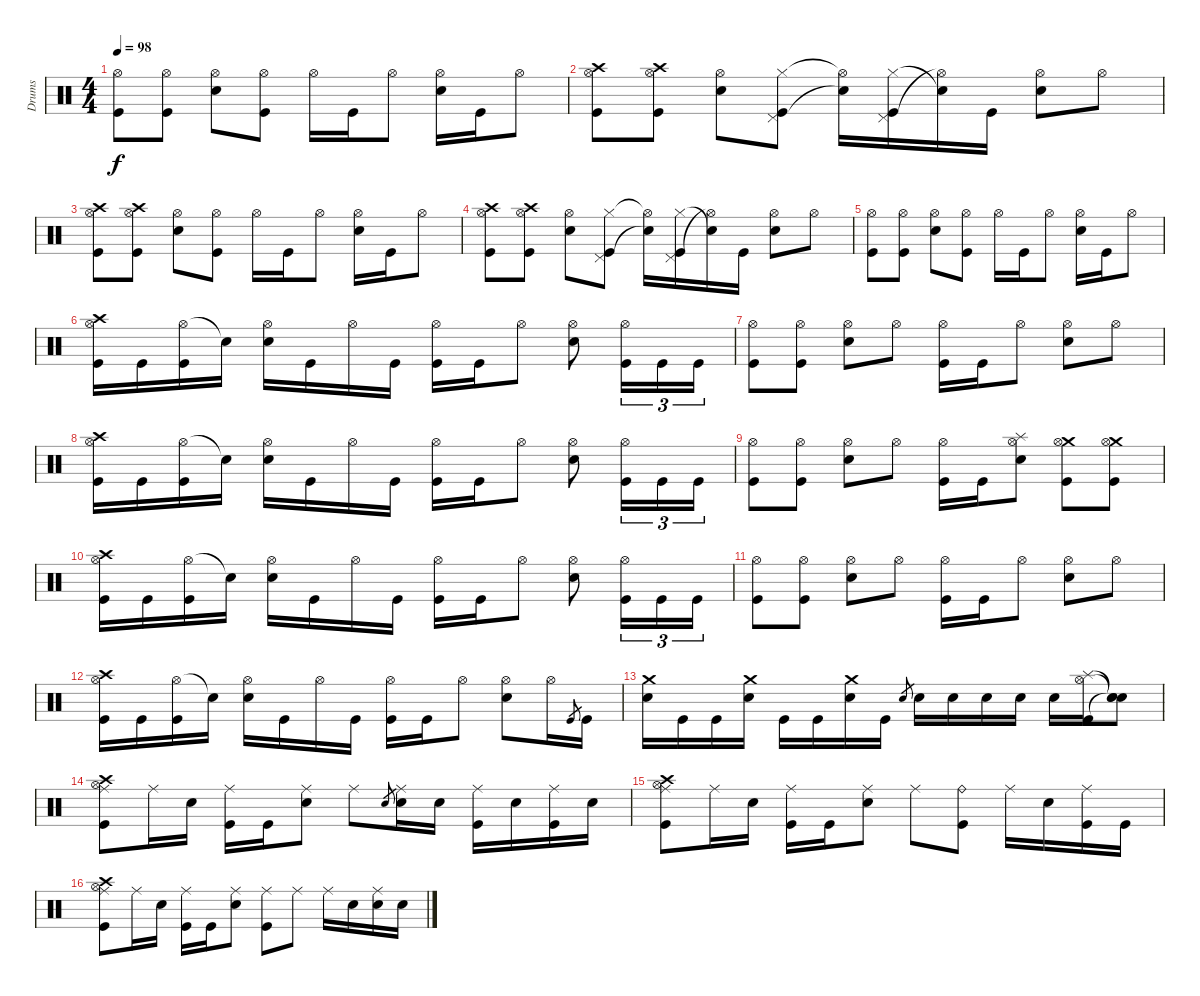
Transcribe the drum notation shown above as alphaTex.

\track ("Drums" "Drums") {instrument percussion}
\staff {score}
\articulation defaults
\ts (4 4)
\tempo 98
\clef neutral
\ks aminor
("Hi-Hat (open)" "Kick (hit)").8{dy f} ("Hi-Hat (open)" "Kick (hit)").8 ("Hi-Hat (open)" "Electric Snare (hit)").8 ("Hi-Hat (open)" "Kick (hit)").8 "Hi-Hat (open)".16 "Kick (hit)".16 "Hi-Hat (open)".8 ("Hi-Hat (open)" "Electric Snare (hit)").16 "Kick (hit)".16 "Hi-Hat (open)".8 |
("Crash high (hit)" "Hi-Hat (open)" "Kick (hit)").8 ("Crash high (hit)" "Hi-Hat (open)" "Kick (hit)").8 ("Hi-Hat (open)" "Electric Snare (hit)").8 ("Pedal Hi-Hat (hit)" "Hi-Hat (closed)" "Kick (hit)").8 ("Snare (hit)"{t} "Hi-Hat (open)"{t}).16 ("Hi-Hat (closed)" "Pedal Hi-Hat (hit)" "Kick (hit)").16 ("Snare (hit)"{t} "Hi-Hat (open)"{t}).16 "Kick (hit)".16 ("Hi-Hat (open)" "Electric Snare (hit)").8 "Hi-Hat (open)".8 |
("Crash high (hit)" "Hi-Hat (open)" "Kick (hit)").8 ("Crash high (hit)" "Hi-Hat (open)" "Kick (hit)").8 ("Hi-Hat (open)" "Electric Snare (hit)").8 ("Hi-Hat (open)" "Kick (hit)").8 "Hi-Hat (open)".16 "Kick (hit)".16 "Hi-Hat (open)".8 ("Hi-Hat (open)" "Electric Snare (hit)").16 "Kick (hit)".16 "Hi-Hat (open)".8 |
("Crash high (hit)" "Hi-Hat (open)" "Kick (hit)").8 ("Crash high (hit)" "Hi-Hat (open)" "Kick (hit)").8 ("Hi-Hat (open)" "Electric Snare (hit)").8 ("Pedal Hi-Hat (hit)" "Hi-Hat (closed)" "Kick (hit)").8 ("Snare (hit)"{t} "Hi-Hat (open)"{t}).16 ("Hi-Hat (closed)" "Pedal Hi-Hat (hit)" "Kick (hit)").16 ("Snare (hit)"{t} "Hi-Hat (open)"{t}).16 "Kick (hit)".16 ("Hi-Hat (open)" "Electric Snare (hit)").8 "Hi-Hat (open)".8 |
("Hi-Hat (open)" "Kick (hit)").8 ("Hi-Hat (open)" "Kick (hit)").8 ("Hi-Hat (open)" "Electric Snare (hit)").8 ("Hi-Hat (open)" "Kick (hit)").8 "Hi-Hat (open)".16 "Kick (hit)".16 "Hi-Hat (open)".8 ("Hi-Hat (open)" "Electric Snare (hit)").16 "Kick (hit)".16 "Hi-Hat (open)".8 |
("Crash high (hit)" "Hi-Hat (open)" "Kick (hit)").16 "Kick (hit)".16 ("Hi-Hat (open)" "Kick (hit)").16 "Snare (hit)"{t}.16 ("Hi-Hat (open)" "Electric Snare (hit)").16 "Kick (hit)".16 "Hi-Hat (open)".16 "Kick (hit)".16 ("Hi-Hat (open)" "Kick (hit)").16 "Kick (hit)".16 "Hi-Hat (open)".8 ("Hi-Hat (open)" "Electric Snare (hit)").8 ("Hi-Hat (open)" "Kick (hit)").16{tu (3 2)} "Kick (hit)".16{tu (3 2)} "Kick (hit)".16{tu (3 2)} |
("Hi-Hat (open)" "Kick (hit)").8 ("Hi-Hat (open)" "Kick (hit)").8 ("Hi-Hat (open)" "Electric Snare (hit)").8 "Hi-Hat (open)".8 ("Hi-Hat (open)" "Kick (hit)").16 "Kick (hit)".16 "Hi-Hat (open)".8 ("Hi-Hat (open)" "Electric Snare (hit)").8 "Hi-Hat (open)".8 |
("Crash high (hit)" "Hi-Hat (open)" "Kick (hit)").16 "Kick (hit)".16 ("Hi-Hat (open)" "Kick (hit)").16 "Snare (hit)"{t}.16 ("Hi-Hat (open)" "Electric Snare (hit)").16 "Kick (hit)".16 "Hi-Hat (open)".16 "Kick (hit)".16 ("Hi-Hat (open)" "Kick (hit)").16 "Kick (hit)".16 "Hi-Hat (open)".8 ("Hi-Hat (open)" "Electric Snare (hit)").8 ("Hi-Hat (open)" "Kick (hit)").16{tu (3 2)} "Kick (hit)".16{tu (3 2)} "Kick (hit)".16{tu (3 2)} |
("Hi-Hat (open)" "Kick (hit)").8 ("Hi-Hat (open)" "Kick (hit)").8 ("Hi-Hat (open)" "Electric Snare (hit)").8 "Hi-Hat (open)".8 ("Hi-Hat (open)" "Kick (hit)").16 "Kick (hit)".16 ("Splash (hit)" "Hi-Hat (open)" "Electric Snare (hit)").8 ("Crash medium (hit)" "Hi-Hat (open)" "Kick (hit)").8 ("Crash medium (hit)" "Hi-Hat (open)" "Kick (hit)").8 |
("Crash high (hit)" "Hi-Hat (open)" "Kick (hit)").16 "Kick (hit)".16 ("Hi-Hat (open)" "Kick (hit)").16 "Snare (hit)"{t}.16 ("Hi-Hat (open)" "Electric Snare (hit)").16 "Kick (hit)".16 "Hi-Hat (open)".16 "Kick (hit)".16 ("Hi-Hat (open)" "Kick (hit)").16 "Kick (hit)".16 "Hi-Hat (open)".8 ("Hi-Hat (open)" "Electric Snare (hit)").8 ("Hi-Hat (open)" "Kick (hit)").16{tu (3 2)} "Kick (hit)".16{tu (3 2)} "Kick (hit)".16{tu (3 2)} |
("Hi-Hat (open)" "Kick (hit)").8 ("Hi-Hat (open)" "Kick (hit)").8 ("Hi-Hat (open)" "Electric Snare (hit)").8 "Hi-Hat (open)".8 ("Hi-Hat (open)" "Kick (hit)").16 "Kick (hit)".16 "Hi-Hat (open)".8 ("Hi-Hat (open)" "Electric Snare (hit)").8 "Hi-Hat (open)".8 |
("Crash high (hit)" "Hi-Hat (open)" "Kick (hit)").16 "Kick (hit)".16 ("Hi-Hat (open)" "Kick (hit)").16 "Snare (hit)"{t}.16 ("Hi-Hat (open)" "Electric Snare (hit)").16 "Kick (hit)".16 "Hi-Hat (open)".16 "Kick (hit)".16 ("Hi-Hat (open)" "Kick (hit)").16 "Kick (hit)".16 "Hi-Hat (open)".8 ("Hi-Hat (open)" "Electric Snare (hit)").8 "Hi-Hat (open)".16 "Kick (hit)".8{gr} "Kick (hit)".16 |
("Crash medium (hit)" "Electric Snare (hit)").16 "Kick (hit)".16 "Kick (hit)".16 ("Crash medium (hit)" "Electric Snare (hit)").16 "Kick (hit)".16 "Kick (hit)".16 ("Crash medium (hit)" "Electric Snare (hit)").16 "Kick (hit)".16 "Electric Snare (hit)".8{gr} "Electric Snare (hit)".16 "Electric Snare (hit)".16 "Electric Snare (hit)".16 "Electric Snare (hit)".16 "Electric Snare (hit)".16 ("Splash (hit)" "Hi-Hat (open)" "Kick (hit)").16 ("Snare (hit)"{t} "Snare (hit)"{t} "Snare (hit)"{t}).8 |
("Ride (middle)" "Crash high (hit)" "Hi-Hat (open)" "Kick (hit)").8 "Ride (middle)".16 "Electric Snare (hit)".16 ("Ride (middle)" "Kick (hit)").16 "Kick (hit)".16 ("Ride (middle)" "Electric Snare (hit)").8 "Ride (middle)".8 "Electric Snare (hit)".8{gr} ("Ride (middle)" "Electric Snare (hit)").16 "Electric Snare (hit)".16 ("Ride (middle)" "Kick (hit)").16 "Electric Snare (hit)".16 ("Ride (middle)" "Kick (hit)").16 "Electric Snare (hit)".16 |
("Ride (middle)" "Crash high (hit)" "Hi-Hat (open)" "Kick (hit)").8 "Ride (middle)".16 "Electric Snare (hit)".16 ("Ride (middle)" "Kick (hit)").16 "Kick (hit)".16 ("Ride (middle)" "Electric Snare (hit)").8 "Ride (middle)".8 ("Ride (bell)" "Kick (hit)").8 "Ride (middle)".16 "Electric Snare (hit)".16 ("Ride (middle)" "Kick (hit)").16 "Kick (hit)".16 |
("Ride (middle)" "Crash high (hit)" "Hi-Hat (open)" "Kick (hit)").8 "Ride (middle)".16 "Electric Snare (hit)".16 ("Ride (middle)" "Kick (hit)").16 "Kick (hit)".16 ("Ride (middle)" "Electric Snare (hit)").8 ("Ride (middle)" "Kick (hit)").8 "Ride (middle)".8 "Ride (middle)".16 "Electric Snare (hit)".16 ("Ride (middle)" "Electric Snare (hit)").16 "Electric Snare (hit)".16
